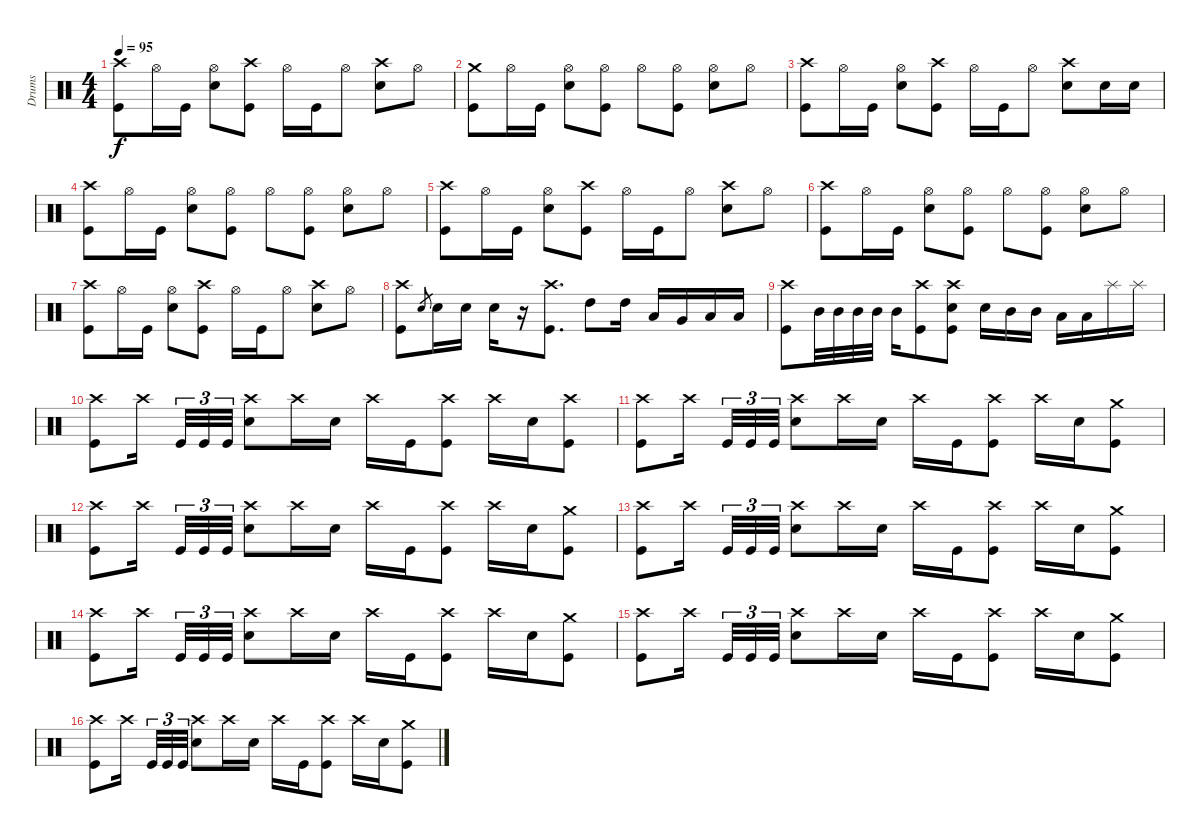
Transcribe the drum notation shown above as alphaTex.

\track ("Drums" "Drums") {instrument percussion}
\staff {score}
\articulation defaults
\ts (4 4)
\tempo 95
\clef neutral
\ks c
("Crash high (hit)" "Kick (hit)").8{dy f} "Hi-Hat (open)".16 "Kick (hit)".16 ("Hi-Hat (open)" "Electric Snare (hit)").8 ("Crash high (hit)" "Kick (hit)").8 "Hi-Hat (open)".16 "Kick (hit)".16 "Hi-Hat (open)".8 ("Crash high (hit)" "Electric Snare (hit)").8 "Hi-Hat (open)".8 |
("Crash medium (hit)" "Kick (hit)").8 "Hi-Hat (open)".16 "Kick (hit)".16 ("Hi-Hat (open)" "Electric Snare (hit)").8 ("Hi-Hat (open)" "Kick (hit)").8 "Hi-Hat (open)".8 ("Hi-Hat (open)" "Kick (hit)").8 ("Hi-Hat (open)" "Electric Snare (hit)").8 "Hi-Hat (open)".8 |
("Crash high (hit)" "Kick (hit)").8 "Hi-Hat (open)".16 "Kick (hit)".16 ("Hi-Hat (open)" "Electric Snare (hit)").8 ("Crash high (hit)" "Kick (hit)").8 "Hi-Hat (open)".16 "Kick (hit)".16 "Hi-Hat (open)".8 ("Crash high (hit)" "Electric Snare (hit)").8 "Electric Snare (hit)".16 "Electric Snare (hit)".16 |
("Crash high (hit)" "Kick (hit)").8 "Hi-Hat (open)".16 "Kick (hit)".16 ("Hi-Hat (open)" "Electric Snare (hit)").8 ("Hi-Hat (open)" "Kick (hit)").8 "Hi-Hat (open)".8 ("Hi-Hat (open)" "Kick (hit)").8 ("Hi-Hat (open)" "Electric Snare (hit)").8 "Hi-Hat (open)".8 |
("Crash high (hit)" "Kick (hit)").8 "Hi-Hat (open)".16 "Kick (hit)".16 ("Hi-Hat (open)" "Electric Snare (hit)").8 ("Crash high (hit)" "Kick (hit)").8 "Hi-Hat (open)".16 "Kick (hit)".16 "Hi-Hat (open)".8 ("Crash high (hit)" "Electric Snare (hit)").8 "Hi-Hat (open)".8 |
("Crash high (hit)" "Kick (hit)").8 "Hi-Hat (open)".16 "Kick (hit)".16 ("Hi-Hat (open)" "Electric Snare (hit)").8 ("Hi-Hat (open)" "Kick (hit)").8 "Hi-Hat (open)".8 ("Hi-Hat (open)" "Kick (hit)").8 ("Hi-Hat (open)" "Electric Snare (hit)").8 "Hi-Hat (open)".8 |
("Crash high (hit)" "Kick (hit)").8 "Hi-Hat (open)".16 "Kick (hit)".16 ("Hi-Hat (open)" "Electric Snare (hit)").8 ("Crash high (hit)" "Kick (hit)").8 "Hi-Hat (open)".16 "Kick (hit)".16 "Hi-Hat (open)".8 ("Crash high (hit)" "Electric Snare (hit)").8 "Hi-Hat (open)".8 |
("Crash high (hit)" "Kick (hit)").8 "Electric Snare (hit)".8{gr} "Electric Snare (hit)".16 "Electric Snare (hit)".16 "Electric Snare (hit)".16 r.16 ("Crash high (hit)" "Kick (hit)").8{d} "High Tom (hit)".8 "High Tom (hit)".16 "Low Tom (hit)".16 "Very Low Tom (hit)".16 "Low Floor Tom (hit)".16 "Low Floor Tom (hit)".16 |
("Crash high (hit)" "Kick (hit)").8 "Mid Tom (hit)".32 "Mid Tom (hit)".32 "Mid Tom (hit)".32 "Mid Tom (hit)".32 "Mid Tom (hit)".16 ("Crash high (hit)" "Kick (hit)").8 ("Crash high (hit)" "Electric Snare (hit)" "Kick (hit)").8 "Electric Snare (hit)".16 "Mid Tom (hit)".16 "Mid Tom (hit)".16 "Low Tom (hit)".16 "Low Tom (hit)".16 "Splash (hit)".16 "Splash (hit)".16 |
("Crash high (hit)" "Kick (hit)").8 "Crash high (hit)".16{beam splitsecondary} "Kick (hit)".32{tu (3 2)} "Kick (hit)".32{tu (3 2)} "Kick (hit)".32{tu (3 2)} ("Crash high (hit)" "Electric Snare (hit)").8 "Crash high (hit)".16 "Electric Snare (hit)".16 "Crash high (hit)".16 "Kick (hit)".16 ("Crash high (hit)" "Kick (hit)").8 "Crash high (hit)".16 "Electric Snare (hit)".16 ("Crash high (hit)" "Kick (hit)").8 |
("Crash high (hit)" "Kick (hit)").8 "Crash high (hit)".16{beam splitsecondary} "Kick (hit)".32{tu (3 2)} "Kick (hit)".32{tu (3 2)} "Kick (hit)".32{tu (3 2)} ("Crash high (hit)" "Electric Snare (hit)").8 "Crash high (hit)".16 "Electric Snare (hit)".16 "Crash high (hit)".16 "Kick (hit)".16 ("Crash high (hit)" "Kick (hit)").8 "Crash high (hit)".16 "Electric Snare (hit)".16 ("Crash medium (hit)" "Kick (hit)").8 |
("Crash high (hit)" "Kick (hit)").8 "Crash high (hit)".16{beam splitsecondary} "Kick (hit)".32{tu (3 2)} "Kick (hit)".32{tu (3 2)} "Kick (hit)".32{tu (3 2)} ("Crash high (hit)" "Electric Snare (hit)").8 "Crash high (hit)".16 "Electric Snare (hit)".16 "Crash high (hit)".16 "Kick (hit)".16 ("Crash high (hit)" "Kick (hit)").8 "Crash high (hit)".16 "Electric Snare (hit)".16 ("Crash medium (hit)" "Kick (hit)").8 |
("Crash high (hit)" "Kick (hit)").8 "Crash high (hit)".16{beam splitsecondary} "Kick (hit)".32{tu (3 2)} "Kick (hit)".32{tu (3 2)} "Kick (hit)".32{tu (3 2)} ("Crash high (hit)" "Electric Snare (hit)").8 "Crash high (hit)".16 "Electric Snare (hit)".16 "Crash high (hit)".16 "Kick (hit)".16 ("Crash high (hit)" "Kick (hit)").8 "Crash high (hit)".16 "Electric Snare (hit)".16 ("Crash medium (hit)" "Kick (hit)").8 |
("Crash high (hit)" "Kick (hit)").8 "Crash high (hit)".16{beam splitsecondary} "Kick (hit)".32{tu (3 2)} "Kick (hit)".32{tu (3 2)} "Kick (hit)".32{tu (3 2)} ("Crash high (hit)" "Electric Snare (hit)").8 "Crash high (hit)".16 "Electric Snare (hit)".16 "Crash high (hit)".16 "Kick (hit)".16 ("Crash high (hit)" "Kick (hit)").8 "Crash high (hit)".16 "Electric Snare (hit)".16 ("Crash medium (hit)" "Kick (hit)").8 |
("Crash high (hit)" "Kick (hit)").8 "Crash high (hit)".16{beam splitsecondary} "Kick (hit)".32{tu (3 2)} "Kick (hit)".32{tu (3 2)} "Kick (hit)".32{tu (3 2)} ("Crash high (hit)" "Electric Snare (hit)").8 "Crash high (hit)".16 "Electric Snare (hit)".16 "Crash high (hit)".16 "Kick (hit)".16 ("Crash high (hit)" "Kick (hit)").8 "Crash high (hit)".16 "Electric Snare (hit)".16 ("Crash medium (hit)" "Kick (hit)").8 |
("Crash high (hit)" "Kick (hit)").8 "Crash high (hit)".16{beam splitsecondary} "Kick (hit)".32{tu (3 2)} "Kick (hit)".32{tu (3 2)} "Kick (hit)".32{tu (3 2)} ("Crash high (hit)" "Electric Snare (hit)").8 "Crash high (hit)".16 "Electric Snare (hit)".16 "Crash high (hit)".16 "Kick (hit)".16 ("Crash high (hit)" "Kick (hit)").8 "Crash high (hit)".16 "Electric Snare (hit)".16 ("Crash medium (hit)" "Kick (hit)").8
